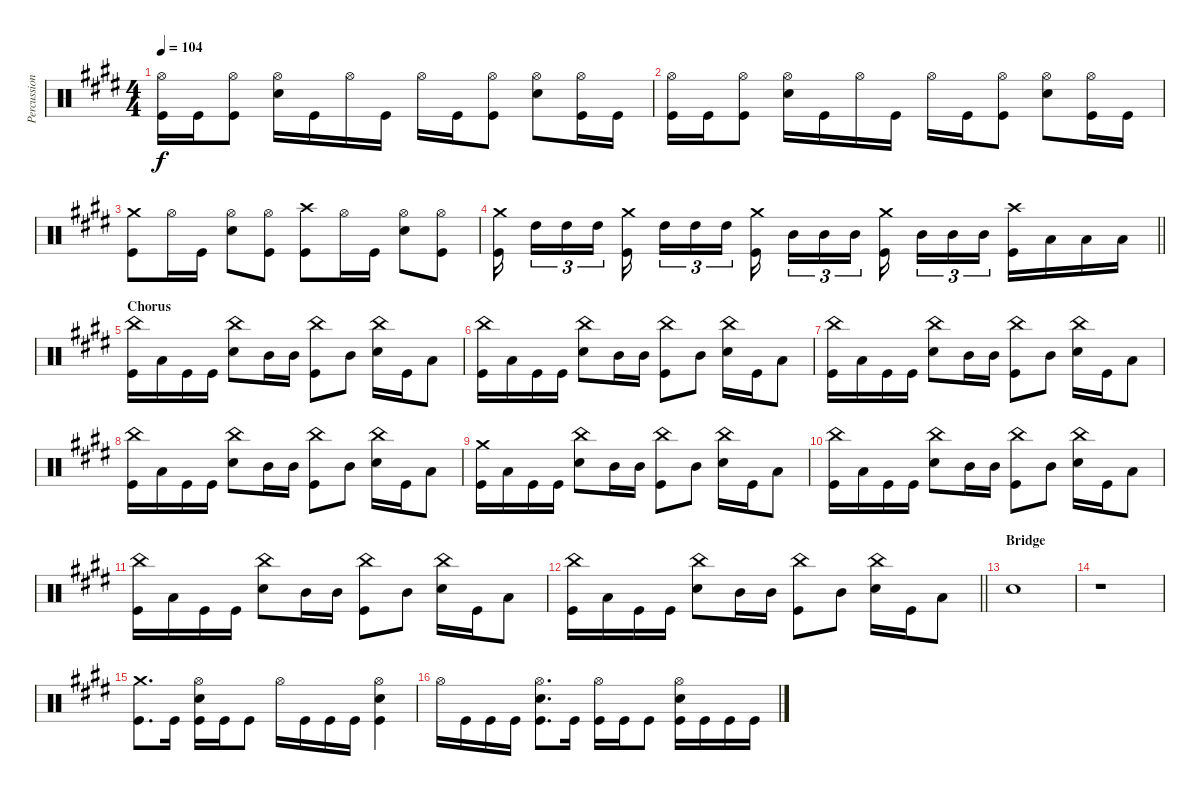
\track ("Percussion" "Percussion") {instrument percussion}
\staff {score}
\articulation defaults
\ts (4 4)
\tempo 104
\clef neutral
\ks e
("Hi-Hat (open)" "Kick (hit)").16{dy f} "Kick (hit)".16 ("Hi-Hat (open)" "Kick (hit)").8 ("Hi-Hat (open)" "Electric Snare (hit)").16 "Kick (hit)".16 "Hi-Hat (open)".16 "Kick (hit)".16 "Hi-Hat (open)".16 "Kick (hit)".16 ("Hi-Hat (open)" "Kick (hit)").8 ("Hi-Hat (open)" "Electric Snare (hit)").8 ("Hi-Hat (open)" "Kick (hit)").16 "Kick (hit)".16 |
("Hi-Hat (open)" "Kick (hit)").16 "Kick (hit)".16 ("Hi-Hat (open)" "Kick (hit)").8 ("Hi-Hat (open)" "Electric Snare (hit)").16 "Kick (hit)".16 "Hi-Hat (open)".16 "Kick (hit)".16 "Hi-Hat (open)".16 "Kick (hit)".16 ("Hi-Hat (open)" "Kick (hit)").8 ("Hi-Hat (open)" "Electric Snare (hit)").8 ("Hi-Hat (open)" "Kick (hit)").16 "Kick (hit)".16 |
("Crash medium (hit)" "Kick (hit)").8 "Hi-Hat (open)".16 "Kick (hit)".16 ("Hi-Hat (open)" "Electric Snare (hit)").8 ("Hi-Hat (open)" "Kick (hit)").8 ("Crash high (hit)" "Kick (hit)").8 "Hi-Hat (open)".16 "Kick (hit)".16 ("Hi-Hat (open)" "Electric Snare (hit)").8 ("Hi-Hat (open)" "Kick (hit)").8 |
\barLineRight lightlight
("Crash medium (hit)" "Kick (hit)").16{beam splitsecondary} "High Tom (hit)".16{tu (3 2)} "High Tom (hit)".16{tu (3 2)} "High Tom (hit)".16{tu (3 2) beam splitsecondary} ("Crash medium (hit)" "Kick (hit)").16 "High Tom (hit)".16{tu (3 2)} "High Tom (hit)".16{tu (3 2)} "High Tom (hit)".16{tu (3 2) beam splitsecondary} ("Crash medium (hit)" "Kick (hit)").16{beam splitsecondary} "Mid Tom (hit)".16{tu (3 2)} "Mid Tom (hit)".16{tu (3 2)} "Mid Tom (hit)".16{tu (3 2) beam splitsecondary} ("Crash medium (hit)" "Kick (hit)").16{beam splitsecondary} "Mid Tom (hit)".16{tu (3 2)} "Mid Tom (hit)".16{tu (3 2)} "Mid Tom (hit)".16{tu (3 2)} ("Crash high (hit)" "Kick (hit)").16 "Low Tom (hit)".16 "Low Tom (hit)".16 "Low Tom (hit)".16 |
\section ("" "Chorus")
("China (hit)" "Kick (hit)").16 "Low Tom (hit)".16 "Kick (hit)".16 "Kick (hit)".16 ("China (hit)" "Electric Snare (hit)").8 "Mid Tom (hit)".16 "Mid Tom (hit)".16 ("China (hit)" "Kick (hit)").8 "Mid Tom (hit)".8 ("China (hit)" "Electric Snare (hit)").16 "Kick (hit)".16 "Low Tom (hit)".8 |
("China (hit)" "Kick (hit)").16 "Low Tom (hit)".16 "Kick (hit)".16 "Kick (hit)".16 ("China (hit)" "Electric Snare (hit)").8 "Mid Tom (hit)".16 "Mid Tom (hit)".16 ("China (hit)" "Kick (hit)").8 "Mid Tom (hit)".8 ("China (hit)" "Electric Snare (hit)").16 "Kick (hit)".16 "Low Tom (hit)".8 |
("China (hit)" "Kick (hit)").16 "Low Tom (hit)".16 "Kick (hit)".16 "Kick (hit)".16 ("China (hit)" "Electric Snare (hit)").8 "Mid Tom (hit)".16 "Mid Tom (hit)".16 ("China (hit)" "Kick (hit)").8 "Mid Tom (hit)".8 ("China (hit)" "Electric Snare (hit)").16 "Kick (hit)".16 "Low Tom (hit)".8 |
("China (hit)" "Kick (hit)").16 "Low Tom (hit)".16 "Kick (hit)".16 "Kick (hit)".16 ("China (hit)" "Electric Snare (hit)").8 "Mid Tom (hit)".16 "Mid Tom (hit)".16 ("China (hit)" "Kick (hit)").8 "Mid Tom (hit)".8 ("China (hit)" "Electric Snare (hit)").16 "Kick (hit)".16 "Low Tom (hit)".8 |
("Crash medium (hit)" "Kick (hit)").16 "Low Tom (hit)".16 "Kick (hit)".16 "Kick (hit)".16 ("China (hit)" "Electric Snare (hit)").8 "Mid Tom (hit)".16 "Mid Tom (hit)".16 ("China (hit)" "Kick (hit)").8 "Mid Tom (hit)".8 ("China (hit)" "Electric Snare (hit)").16 "Kick (hit)".16 "Low Tom (hit)".8 |
("China (hit)" "Kick (hit)").16 "Low Tom (hit)".16 "Kick (hit)".16 "Kick (hit)".16 ("China (hit)" "Electric Snare (hit)").8 "Mid Tom (hit)".16 "Mid Tom (hit)".16 ("China (hit)" "Kick (hit)").8 "Mid Tom (hit)".8 ("China (hit)" "Electric Snare (hit)").16 "Kick (hit)".16 "Low Tom (hit)".8 |
("China (hit)" "Kick (hit)").16 "Low Tom (hit)".16 "Kick (hit)".16 "Kick (hit)".16 ("China (hit)" "Electric Snare (hit)").8 "Mid Tom (hit)".16 "Mid Tom (hit)".16 ("China (hit)" "Kick (hit)").8 "Mid Tom (hit)".8 ("China (hit)" "Electric Snare (hit)").16 "Kick (hit)".16 "Low Tom (hit)".8 |
\barLineRight lightlight
("China (hit)" "Kick (hit)").16 "Low Tom (hit)".16 "Kick (hit)".16 "Kick (hit)".16 ("China (hit)" "Electric Snare (hit)").8 "Mid Tom (hit)".16 "Mid Tom (hit)".16 ("China (hit)" "Kick (hit)").8 "Mid Tom (hit)".8 ("China (hit)" "Electric Snare (hit)").16 "Kick (hit)".16 "Low Tom (hit)".8 |
\section ("" "Bridge")
"Electric Snare (hit)".1 |
r.1 |
("Crash medium (hit)" "Kick (hit)").8{d} "Kick (hit)".16 ("Hi-Hat (open)" "Electric Snare (hit)" "Kick (hit)").16 "Kick (hit)".16 "Kick (hit)".8 "Hi-Hat (open)".16 "Kick (hit)".16 "Kick (hit)".16 "Kick (hit)".16 ("Hi-Hat (open)" "Electric Snare (hit)" "Kick (hit)").4 |
"Hi-Hat (open)".16 "Kick (hit)".16 "Kick (hit)".16 "Kick (hit)".16 ("Hi-Hat (open)" "Electric Snare (hit)" "Kick (hit)").8{d} "Kick (hit)".16 ("Hi-Hat (open)" "Kick (hit)").16 "Kick (hit)".16 "Kick (hit)".8 ("Hi-Hat (open)" "Electric Snare (hit)" "Kick (hit)").16 "Kick (hit)".16 "Kick (hit)".16 "Kick (hit)".16
